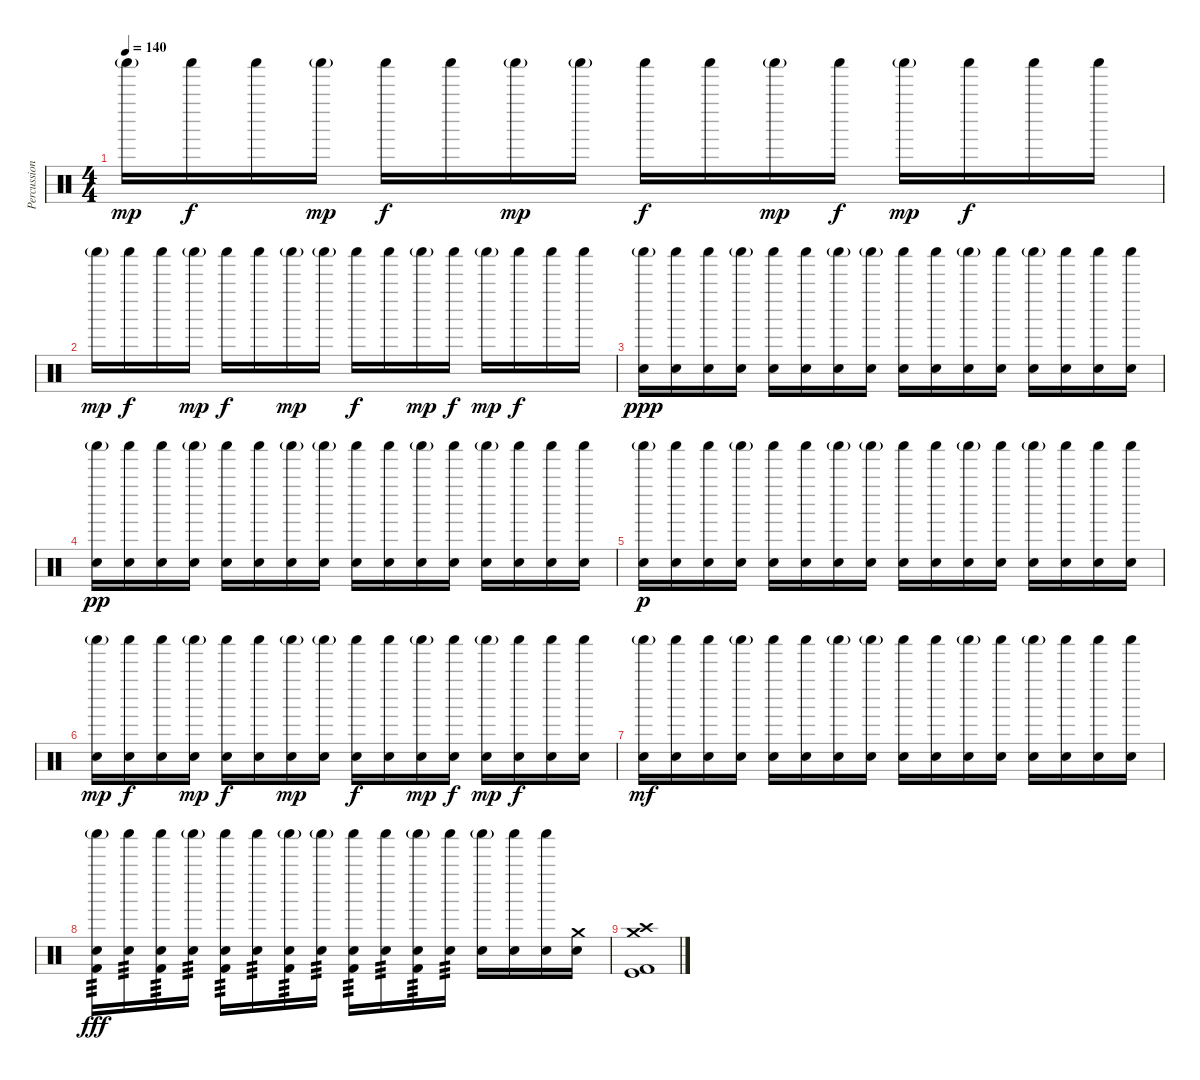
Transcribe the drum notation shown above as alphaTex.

\track ("Percussion" "Percussion") {instrument percussion}
\staff {score}
\articulation defaults
\ts (4 4)
\tempo 140
\clef neutral
\ks c "Shaker (hit)"{g}.16{dy mp} "Shaker (hit)".16{dy f} "Shaker (hit)".16 "Shaker (hit)"{g}.16{dy mp} "Shaker (hit)".16{dy f} "Shaker (hit)".16 "Shaker (hit)"{g}.16{dy mp} "Shaker (hit)"{g}.16 "Shaker (hit)".16{dy f} "Shaker (hit)".16 "Shaker (hit)"{g}.16{dy mp} "Shaker (hit)".16{dy f} "Shaker (hit)"{g}.16{dy mp} "Shaker (hit)".16{dy f} "Shaker (hit)".16 "Shaker (hit)".16
|
"Shaker (hit)"{g}.16{dy mp} "Shaker (hit)".16{dy f} "Shaker (hit)".16 "Shaker (hit)"{g}.16{dy mp} "Shaker (hit)".16{dy f} "Shaker (hit)".16 "Shaker (hit)"{g}.16{dy mp} "Shaker (hit)"{g}.16 "Shaker (hit)".16{dy f} "Shaker (hit)".16 "Shaker (hit)"{g}.16{dy mp} "Shaker (hit)".16{dy f} "Shaker (hit)"{g}.16{dy mp} "Shaker (hit)".16{dy f} "Shaker (hit)".16 "Shaker (hit)".16 |
("Shaker (hit)"{g} "Snare (hit) 2").16{dy ppp} ("Shaker (hit)" "Snare (hit) 2").16 ("Shaker (hit)" "Snare (hit) 2").16 ("Shaker (hit)"{g} "Snare (hit) 2").16 ("Shaker (hit)" "Snare (hit) 2").16 ("Shaker (hit)" "Snare (hit) 2").16 ("Shaker (hit)"{g} "Snare (hit) 2").16 ("Shaker (hit)"{g} "Snare (hit) 2").16 ("Shaker (hit)" "Snare (hit) 2").16 ("Shaker (hit)" "Snare (hit) 2").16 ("Shaker (hit)"{g} "Snare (hit) 2").16 ("Shaker (hit)" "Snare (hit) 2").16 ("Shaker (hit)"{g} "Snare (hit) 2").16 ("Shaker (hit)" "Snare (hit) 2").16 ("Shaker (hit)" "Snare (hit) 2").16 ("Shaker (hit)" "Snare (hit) 2").16 |
("Shaker (hit)"{g} "Snare (hit) 2").16{dy pp} ("Shaker (hit)" "Snare (hit) 2").16 ("Shaker (hit)" "Snare (hit) 2").16 ("Shaker (hit)"{g} "Snare (hit) 2").16 ("Shaker (hit)" "Snare (hit) 2").16 ("Shaker (hit)" "Snare (hit) 2").16 ("Shaker (hit)"{g} "Snare (hit) 2").16 ("Shaker (hit)"{g} "Snare (hit) 2").16 ("Shaker (hit)" "Snare (hit) 2").16 ("Shaker (hit)" "Snare (hit) 2").16 ("Shaker (hit)"{g} "Snare (hit) 2").16 ("Shaker (hit)" "Snare (hit) 2").16 ("Shaker (hit)"{g} "Snare (hit) 2").16 ("Shaker (hit)" "Snare (hit) 2").16 ("Shaker (hit)" "Snare (hit) 2").16 ("Shaker (hit)" "Snare (hit) 2").16 |
("Shaker (hit)"{g} "Snare (hit) 2").16{dy p} ("Shaker (hit)" "Snare (hit) 2").16 ("Shaker (hit)" "Snare (hit) 2").16 ("Shaker (hit)"{g} "Snare (hit) 2").16 ("Shaker (hit)" "Snare (hit) 2").16 ("Shaker (hit)" "Snare (hit) 2").16 ("Shaker (hit)"{g} "Snare (hit) 2").16 ("Shaker (hit)"{g} "Snare (hit) 2").16 ("Shaker (hit)" "Snare (hit) 2").16 ("Shaker (hit)" "Snare (hit) 2").16 ("Shaker (hit)"{g} "Snare (hit) 2").16 ("Shaker (hit)" "Snare (hit) 2").16 ("Shaker (hit)"{g} "Snare (hit) 2").16 ("Shaker (hit)" "Snare (hit) 2").16 ("Shaker (hit)" "Snare (hit) 2").16 ("Shaker (hit)" "Snare (hit) 2").16 |
("Shaker (hit)"{g} "Snare (hit) 2").16{dy mp} ("Shaker (hit)" "Snare (hit) 2").16{dy f} ("Shaker (hit)" "Snare (hit) 2").16 ("Shaker (hit)"{g} "Snare (hit) 2").16{dy mp} ("Shaker (hit)" "Snare (hit) 2").16{dy f} ("Shaker (hit)" "Snare (hit) 2").16 ("Shaker (hit)"{g} "Snare (hit) 2").16{dy mp} ("Shaker (hit)"{g} "Snare (hit) 2").16 ("Shaker (hit)" "Snare (hit) 2").16{dy f} ("Shaker (hit)" "Snare (hit) 2").16 ("Shaker (hit)"{g} "Snare (hit) 2").16{dy mp} ("Shaker (hit)" "Snare (hit) 2").16{dy f} ("Shaker (hit)"{g} "Snare (hit) 2").16{dy mp} ("Shaker (hit)" "Snare (hit) 2").16{dy f} ("Shaker (hit)" "Snare (hit) 2").16 ("Shaker (hit)" "Snare (hit) 2").16 |
("Shaker (hit)"{g} "Snare (hit) 2").16{dy mf} ("Shaker (hit)" "Snare (hit) 2").16 ("Shaker (hit)" "Snare (hit) 2").16 ("Shaker (hit)"{g} "Snare (hit) 2").16 ("Shaker (hit)" "Snare (hit) 2").16 ("Shaker (hit)" "Snare (hit) 2").16 ("Shaker (hit)"{g} "Snare (hit) 2").16 ("Shaker (hit)"{g} "Snare (hit) 2").16 ("Shaker (hit)" "Snare (hit) 2").16 ("Shaker (hit)" "Snare (hit) 2").16 ("Shaker (hit)"{g} "Snare (hit) 2").16 ("Shaker (hit)" "Snare (hit) 2").16 ("Shaker (hit)"{g} "Snare (hit) 2").16 ("Shaker (hit)" "Snare (hit) 2").16 ("Shaker (hit)" "Snare (hit) 2").16 ("Shaker (hit)" "Snare (hit) 2").16 |
("Shaker (hit)"{g} "Snare (hit) 2" "Kick (hit) 2").16{tp 3 dy fff} ("Shaker (hit)" "Snare (hit) 2").16{tp 3} ("Shaker (hit)" "Snare (hit) 2" "Kick (hit) 2").16{tp 3} ("Shaker (hit)"{g} "Snare (hit) 2").16{tp 3} ("Shaker (hit)" "Snare (hit) 2" "Kick (hit) 2").16{tp 3} ("Shaker (hit)" "Snare (hit) 2").16{tp 3} ("Shaker (hit)"{g} "Snare (hit) 2" "Kick (hit) 2").16{tp 3} ("Shaker (hit)"{g} "Snare (hit) 2").16{tp 3} ("Shaker (hit)" "Snare (hit) 2" "Kick (hit) 2").16{tp 3} ("Shaker (hit)" "Snare (hit) 2").16{tp 3} ("Shaker (hit)"{g} "Snare (hit) 2" "Kick (hit) 2").16{tp 3} ("Shaker (hit)" "Snare (hit) 2").16{tp 3} ("Shaker (hit)"{g} "Snare (hit) 2").16 ("Shaker (hit)" "Snare (hit) 2").16 ("Shaker (hit)" "Snare (hit) 2").16 ("Crash medium (hit)" "Snare (hit) 2").16 |
("Crash medium (hit)" "Crash high (hit)" "Kick (hit)" "Kick (hit) 2").1
